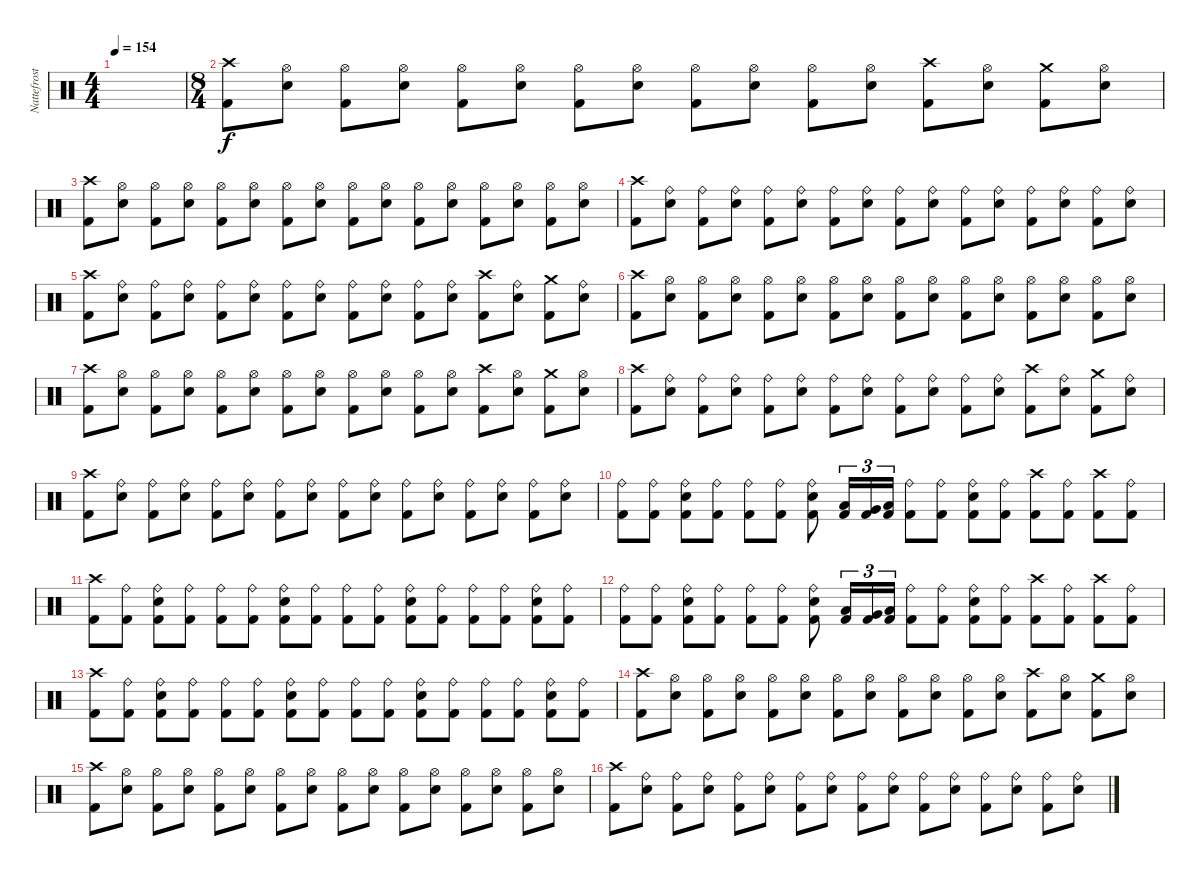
\track ("Nattefrost" "Nattefrost") {instrument percussion}
\staff {score}
\articulation defaults
\ts (4 4)
\tempo 154
\clef neutral
\ks c
|
\ts (8 4)
("Crash high (hit)" "Kick (hit) 2").8 ("Hi-Hat (open)" "Snare (hit) 2").8 ("Hi-Hat (open)" "Kick (hit) 2").8 ("Hi-Hat (open)" "Snare (hit) 2").8 ("Hi-Hat (open)" "Kick (hit) 2").8 ("Hi-Hat (open)" "Snare (hit) 2").8 ("Hi-Hat (open)" "Kick (hit) 2").8 ("Hi-Hat (open)" "Snare (hit) 2").8 ("Hi-Hat (open)" "Kick (hit) 2").8 ("Hi-Hat (open)" "Snare (hit) 2").8 ("Hi-Hat (open)" "Kick (hit) 2").8 ("Hi-Hat (open)" "Snare (hit) 2").8 ("Crash high (hit)" "Kick (hit) 2").8 ("Hi-Hat (open)" "Snare (hit) 2").8 ("Crash medium (hit)" "Kick (hit) 2").8 ("Hi-Hat (open)" "Snare (hit) 2").8 |
("Crash high (hit)" "Kick (hit) 2").8 ("Hi-Hat (open)" "Snare (hit) 2").8 ("Hi-Hat (open)" "Kick (hit) 2").8 ("Hi-Hat (open)" "Snare (hit) 2").8 ("Hi-Hat (open)" "Kick (hit) 2").8 ("Hi-Hat (open)" "Snare (hit) 2").8 ("Hi-Hat (open)" "Kick (hit) 2").8 ("Hi-Hat (open)" "Snare (hit) 2").8 ("Hi-Hat (open)" "Kick (hit) 2").8 ("Hi-Hat (open)" "Snare (hit) 2").8 ("Hi-Hat (open)" "Kick (hit) 2").8 ("Hi-Hat (open)" "Snare (hit) 2").8 ("Hi-Hat (open)" "Kick (hit) 2").8 ("Hi-Hat (open)" "Snare (hit) 2").8 ("Hi-Hat (open)" "Kick (hit) 2").8 ("Hi-Hat (open)" "Snare (hit) 2").8 |
("Crash high (hit)" "Kick (hit) 2").8 ("Ride (bell)" "Snare (hit) 2").8 ("Ride (bell)" "Kick (hit) 2").8 ("Ride (bell)" "Snare (hit) 2").8 ("Ride (bell)" "Kick (hit) 2").8 ("Ride (bell)" "Snare (hit) 2").8 ("Ride (bell)" "Kick (hit) 2").8 ("Ride (bell)" "Snare (hit) 2").8 ("Ride (bell)" "Kick (hit) 2").8 ("Ride (bell)" "Snare (hit) 2").8 ("Ride (bell)" "Kick (hit) 2").8 ("Ride (bell)" "Snare (hit) 2").8 ("Ride (bell)" "Kick (hit) 2").8 ("Ride (bell)" "Snare (hit) 2").8 ("Ride (bell)" "Kick (hit) 2").8 ("Ride (bell)" "Snare (hit) 2").8 |
("Crash high (hit)" "Kick (hit) 2").8 ("Ride (bell)" "Snare (hit) 2").8 ("Ride (bell)" "Kick (hit) 2").8 ("Ride (bell)" "Snare (hit) 2").8 ("Ride (bell)" "Kick (hit) 2").8 ("Ride (bell)" "Snare (hit) 2").8 ("Ride (bell)" "Kick (hit) 2").8 ("Ride (bell)" "Snare (hit) 2").8 ("Ride (bell)" "Kick (hit) 2").8 ("Ride (bell)" "Snare (hit) 2").8 ("Ride (bell)" "Kick (hit) 2").8 ("Ride (bell)" "Snare (hit) 2").8 ("Crash high (hit)" "Kick (hit) 2").8 ("Ride (bell)" "Snare (hit) 2").8 ("Crash medium (hit)" "Kick (hit) 2").8 ("Ride (bell)" "Snare (hit) 2").8 |
("Crash high (hit)" "Kick (hit) 2").8 ("Hi-Hat (open)" "Snare (hit) 2").8 ("Hi-Hat (open)" "Kick (hit) 2").8 ("Hi-Hat (open)" "Snare (hit) 2").8 ("Hi-Hat (open)" "Kick (hit) 2").8 ("Hi-Hat (open)" "Snare (hit) 2").8 ("Hi-Hat (open)" "Kick (hit) 2").8 ("Hi-Hat (open)" "Snare (hit) 2").8 ("Hi-Hat (open)" "Kick (hit) 2").8 ("Hi-Hat (open)" "Snare (hit) 2").8 ("Hi-Hat (open)" "Kick (hit) 2").8 ("Hi-Hat (open)" "Snare (hit) 2").8 ("Hi-Hat (open)" "Kick (hit) 2").8 ("Hi-Hat (open)" "Snare (hit) 2").8 ("Hi-Hat (open)" "Kick (hit) 2").8 ("Hi-Hat (open)" "Snare (hit) 2").8 |
("Crash high (hit)" "Kick (hit) 2").8 ("Hi-Hat (open)" "Snare (hit) 2").8 ("Hi-Hat (open)" "Kick (hit) 2").8 ("Hi-Hat (open)" "Snare (hit) 2").8 ("Hi-Hat (open)" "Kick (hit) 2").8 ("Hi-Hat (open)" "Snare (hit) 2").8 ("Hi-Hat (open)" "Kick (hit) 2").8 ("Hi-Hat (open)" "Snare (hit) 2").8 ("Hi-Hat (open)" "Kick (hit) 2").8 ("Hi-Hat (open)" "Snare (hit) 2").8 ("Hi-Hat (open)" "Kick (hit) 2").8 ("Hi-Hat (open)" "Snare (hit) 2").8 ("Crash high (hit)" "Kick (hit) 2").8 ("Hi-Hat (open)" "Snare (hit) 2").8 ("Crash medium (hit)" "Kick (hit) 2").8 ("Hi-Hat (open)" "Snare (hit) 2").8 |
("Crash high (hit)" "Kick (hit) 2").8 ("Ride (bell)" "Snare (hit) 2").8 ("Ride (bell)" "Kick (hit) 2").8 ("Ride (bell)" "Snare (hit) 2").8 ("Ride (bell)" "Kick (hit) 2").8 ("Ride (bell)" "Snare (hit) 2").8 ("Ride (bell)" "Kick (hit) 2").8 ("Ride (bell)" "Snare (hit) 2").8 ("Ride (bell)" "Kick (hit) 2").8 ("Ride (bell)" "Snare (hit) 2").8 ("Ride (bell)" "Kick (hit) 2").8 ("Ride (bell)" "Snare (hit) 2").8 ("Crash high (hit)" "Kick (hit) 2").8 ("Ride (bell)" "Snare (hit) 2").8 ("Crash medium (hit)" "Kick (hit) 2").8 ("Ride (bell)" "Snare (hit) 2").8 |
("Crash high (hit)" "Kick (hit) 2").8 ("Ride (bell)" "Snare (hit) 2").8 ("Ride (bell)" "Kick (hit) 2").8 ("Ride (bell)" "Snare (hit) 2").8 ("Ride (bell)" "Kick (hit) 2").8 ("Ride (bell)" "Snare (hit) 2").8 ("Ride (bell)" "Kick (hit) 2").8 ("Ride (bell)" "Snare (hit) 2").8 ("Ride (bell)" "Kick (hit) 2").8 ("Ride (bell)" "Snare (hit) 2").8 ("Ride (bell)" "Kick (hit) 2").8 ("Ride (bell)" "Snare (hit) 2").8 ("Ride (bell)" "Kick (hit) 2").8 ("Ride (bell)" "Snare (hit) 2").8 ("Ride (bell)" "Kick (hit) 2").8 ("Ride (bell)" "Snare (hit) 2").8 |
("Ride (bell)" "Kick (hit) 2").8 ("Ride (bell)" "Kick (hit) 2").8 ("Ride (bell)" "Snare (hit) 2" "Kick (hit) 2").8 ("Ride (bell)" "Kick (hit) 2").8 ("Ride (bell)" "Kick (hit) 2").8 ("Ride (bell)" "Kick (hit) 2").8 ("Ride (bell)" "Snare (hit) 2" "Kick (hit) 2").8 ("Low Tom (hit)" "Kick (hit) 2").16{tu (3 2)} ("Very Low Tom (hit)" "Kick (hit) 2").16{tu (3 2)} ("Low Floor Tom (hit)" "Kick (hit) 2").16{tu (3 2)} ("Ride (bell)" "Kick (hit) 2").8 ("Ride (bell)" "Kick (hit) 2").8 ("Ride (bell)" "Snare (hit) 2" "Kick (hit) 2").8 ("Ride (bell)" "Kick (hit) 2").8 ("Crash high (hit)" "Kick (hit) 2").8 ("Ride (bell)" "Kick (hit) 2").8 ("Crash high (hit)" "Kick (hit) 2").8 ("Ride (bell)" "Kick (hit) 2").8 |
("Crash high (hit)" "Kick (hit) 2").8 ("Ride (bell)" "Kick (hit) 2").8 ("Ride (bell)" "Snare (hit) 2" "Kick (hit) 2").8 ("Ride (bell)" "Kick (hit) 2").8 ("Ride (bell)" "Kick (hit) 2").8 ("Ride (bell)" "Kick (hit) 2").8 ("Ride (bell)" "Snare (hit) 2" "Kick (hit) 2").8 ("Ride (bell)" "Kick (hit) 2").8 ("Ride (bell)" "Kick (hit) 2").8 ("Ride (bell)" "Kick (hit) 2").8 ("Ride (bell)" "Snare (hit) 2" "Kick (hit) 2").8 ("Ride (bell)" "Kick (hit) 2").8 ("Ride (bell)" "Kick (hit) 2").8 ("Ride (bell)" "Kick (hit) 2").8 ("Ride (bell)" "Snare (hit) 2" "Kick (hit) 2").8 ("Ride (bell)" "Kick (hit) 2").8 |
("Ride (bell)" "Kick (hit) 2").8 ("Ride (bell)" "Kick (hit) 2").8 ("Ride (bell)" "Snare (hit) 2" "Kick (hit) 2").8 ("Ride (bell)" "Kick (hit) 2").8 ("Ride (bell)" "Kick (hit) 2").8 ("Ride (bell)" "Kick (hit) 2").8 ("Ride (bell)" "Snare (hit) 2" "Kick (hit) 2").8 ("Low Tom (hit)" "Kick (hit) 2").16{tu (3 2)} ("Very Low Tom (hit)" "Kick (hit) 2").16{tu (3 2)} ("Low Floor Tom (hit)" "Kick (hit) 2").16{tu (3 2)} ("Ride (bell)" "Kick (hit) 2").8 ("Ride (bell)" "Kick (hit) 2").8 ("Ride (bell)" "Snare (hit) 2" "Kick (hit) 2").8 ("Ride (bell)" "Kick (hit) 2").8 ("Crash high (hit)" "Kick (hit) 2").8 ("Ride (bell)" "Kick (hit) 2").8 ("Crash high (hit)" "Kick (hit) 2").8 ("Ride (bell)" "Kick (hit) 2").8 |
("Crash high (hit)" "Kick (hit) 2").8 ("Ride (bell)" "Kick (hit) 2").8 ("Ride (bell)" "Snare (hit) 2" "Kick (hit) 2").8 ("Ride (bell)" "Kick (hit) 2").8 ("Ride (bell)" "Kick (hit) 2").8 ("Ride (bell)" "Kick (hit) 2").8 ("Ride (bell)" "Snare (hit) 2" "Kick (hit) 2").8 ("Ride (bell)" "Kick (hit) 2").8 ("Ride (bell)" "Kick (hit) 2").8 ("Ride (bell)" "Kick (hit) 2").8 ("Ride (bell)" "Snare (hit) 2" "Kick (hit) 2").8 ("Ride (bell)" "Kick (hit) 2").8 ("Ride (bell)" "Kick (hit) 2").8 ("Ride (bell)" "Kick (hit) 2").8 ("Ride (bell)" "Snare (hit) 2" "Kick (hit) 2").8 ("Ride (bell)" "Kick (hit) 2").8 |
("Crash high (hit)" "Kick (hit) 2").8 ("Hi-Hat (open)" "Snare (hit) 2").8 ("Hi-Hat (open)" "Kick (hit) 2").8 ("Hi-Hat (open)" "Snare (hit) 2").8 ("Hi-Hat (open)" "Kick (hit) 2").8 ("Hi-Hat (open)" "Snare (hit) 2").8 ("Hi-Hat (open)" "Kick (hit) 2").8 ("Hi-Hat (open)" "Snare (hit) 2").8 ("Hi-Hat (open)" "Kick (hit) 2").8 ("Hi-Hat (open)" "Snare (hit) 2").8 ("Hi-Hat (open)" "Kick (hit) 2").8 ("Hi-Hat (open)" "Snare (hit) 2").8 ("Crash high (hit)" "Kick (hit) 2").8 ("Hi-Hat (open)" "Snare (hit) 2").8 ("Crash medium (hit)" "Kick (hit) 2").8 ("Hi-Hat (open)" "Snare (hit) 2").8 |
("Crash high (hit)" "Kick (hit) 2").8 ("Hi-Hat (open)" "Snare (hit) 2").8 ("Hi-Hat (open)" "Kick (hit) 2").8 ("Hi-Hat (open)" "Snare (hit) 2").8 ("Hi-Hat (open)" "Kick (hit) 2").8 ("Hi-Hat (open)" "Snare (hit) 2").8 ("Hi-Hat (open)" "Kick (hit) 2").8 ("Hi-Hat (open)" "Snare (hit) 2").8 ("Hi-Hat (open)" "Kick (hit) 2").8 ("Hi-Hat (open)" "Snare (hit) 2").8 ("Hi-Hat (open)" "Kick (hit) 2").8 ("Hi-Hat (open)" "Snare (hit) 2").8 ("Hi-Hat (open)" "Kick (hit) 2").8 ("Hi-Hat (open)" "Snare (hit) 2").8 ("Hi-Hat (open)" "Kick (hit) 2").8 ("Hi-Hat (open)" "Snare (hit) 2").8 |
("Crash high (hit)" "Kick (hit) 2").8 ("Ride (bell)" "Snare (hit) 2").8 ("Ride (bell)" "Kick (hit) 2").8 ("Ride (bell)" "Snare (hit) 2").8 ("Ride (bell)" "Kick (hit) 2").8 ("Ride (bell)" "Snare (hit) 2").8 ("Ride (bell)" "Kick (hit) 2").8 ("Ride (bell)" "Snare (hit) 2").8 ("Ride (bell)" "Kick (hit) 2").8 ("Ride (bell)" "Snare (hit) 2").8 ("Ride (bell)" "Kick (hit) 2").8 ("Ride (bell)" "Snare (hit) 2").8 ("Ride (bell)" "Kick (hit) 2").8 ("Ride (bell)" "Snare (hit) 2").8 ("Ride (bell)" "Kick (hit) 2").8 ("Ride (bell)" "Snare (hit) 2").8
